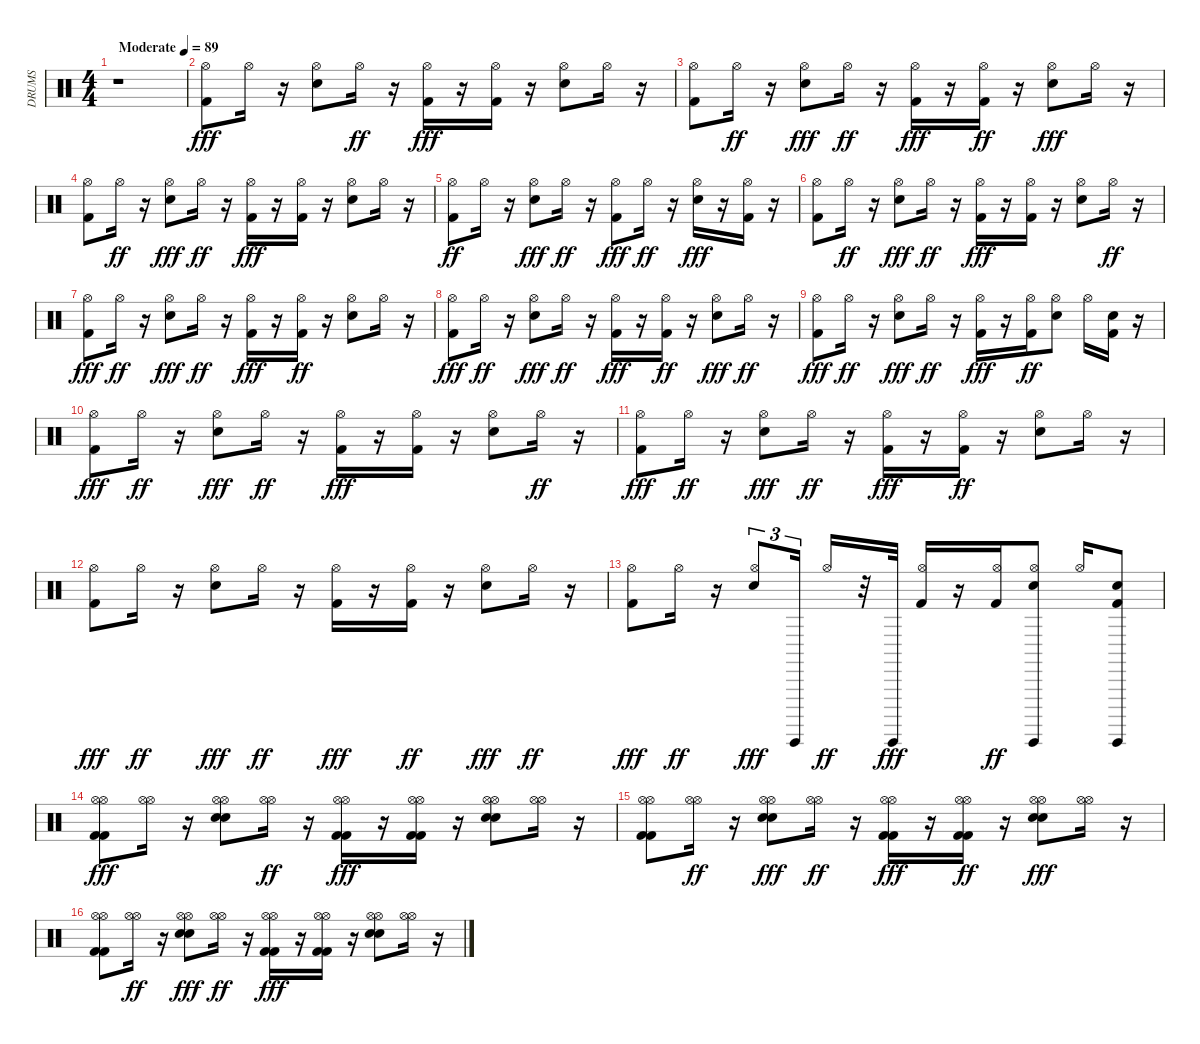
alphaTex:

\track ("DRUMS" "DRUMS") {instrument percussion}
\staff {score}
\articulation defaults
\ts (4 4)
\tempo (89 "Moderate")
\clef neutral
\ks c
r.1{dy fff} |
("Hi-Hat (open)" "Kick (hit) 2").8 "Hi-Hat (open)".16 r.16 ("Electric Snare (hit)" "Hi-Hat (open)").8 "Hi-Hat (open)".16{dy ff} r.16 ("Hi-Hat (open)" "Kick (hit) 2").16{dy fff} r.16 ("Kick (hit) 2" "Hi-Hat (open)").16 r.16 ("Hi-Hat (open)" "Electric Snare (hit)").8 "Hi-Hat (open)".16 r.16 |
("Hi-Hat (open)" "Kick (hit) 2").8 "Hi-Hat (open)".16{dy ff} r.16 ("Hi-Hat (open)" "Electric Snare (hit)").8{dy fff} "Hi-Hat (open)".16{dy ff} r.16 ("Hi-Hat (open)" "Kick (hit) 2").16{dy fff} r.16 ("Kick (hit) 2" "Hi-Hat (open)").16{dy ff} r.16 ("Electric Snare (hit)" "Hi-Hat (open)").8{dy fff} "Hi-Hat (open)".16 r.16 |
("Hi-Hat (open)" "Kick (hit) 2").8 "Hi-Hat (open)".16{dy ff} r.16 ("Hi-Hat (open)" "Electric Snare (hit)").8{dy fff} "Hi-Hat (open)".16{dy ff} r.16 ("Hi-Hat (open)" "Kick (hit) 2").16{dy fff} r.16 ("Kick (hit) 2" "Hi-Hat (open)").16 r.16 ("Hi-Hat (open)" "Electric Snare (hit)").8 "Hi-Hat (open)".16 r.16 |
("Hi-Hat (open)" "Kick (hit) 2").8{dy ff} "Hi-Hat (open)".16 r.16 ("Electric Snare (hit)" "Hi-Hat (open)").8{dy fff} "Hi-Hat (open)".16{dy ff} r.16 ("Hi-Hat (open)" "Kick (hit) 2").8{dy fff} "Hi-Hat (open)".16{dy ff} r.16 ("Electric Snare (hit)" "Hi-Hat (open)").16{dy fff} r.16 ("Hi-Hat (open)" "Kick (hit) 2").16 r.16 |
("Hi-Hat (open)" "Kick (hit) 2").8 "Hi-Hat (open)".16{dy ff} r.16 ("Hi-Hat (open)" "Electric Snare (hit)").8{dy fff} "Hi-Hat (open)".16{dy ff} r.16 ("Hi-Hat (open)" "Kick (hit) 2").16{dy fff} r.16 ("Hi-Hat (open)" "Kick (hit) 2").16 r.16 ("Hi-Hat (open)" "Electric Snare (hit)").8 "Hi-Hat (open)".16{dy ff} r.16 |
("Hi-Hat (open)" "Kick (hit) 2").8{dy fff} "Hi-Hat (open)".16{dy ff} r.16 ("Electric Snare (hit)" "Hi-Hat (open)").8{dy fff} "Hi-Hat (open)".16{dy ff} r.16 ("Hi-Hat (open)" "Kick (hit) 2").16{dy fff} r.16 ("Hi-Hat (open)" "Kick (hit) 2").16{dy ff} r.16 ("Electric Snare (hit)" "Hi-Hat (open)").8 "Hi-Hat (open)".16 r.16 |
("Hi-Hat (open)" "Kick (hit) 2").8{dy fff} "Hi-Hat (open)".16{dy ff} r.16 ("Electric Snare (hit)" "Hi-Hat (open)").8{dy fff} "Hi-Hat (open)".16{dy ff} r.16 ("Hi-Hat (open)" "Kick (hit) 2").16{dy fff} r.16 ("Hi-Hat (open)" "Kick (hit) 2").16{dy ff} r.16 ("Electric Snare (hit)" "Hi-Hat (open)").8{dy fff} "Hi-Hat (open)".16{dy ff} r.16 |
("Hi-Hat (open)" "Kick (hit) 2").8{dy fff} "Hi-Hat (open)".16{dy ff} r.16 ("Electric Snare (hit)" "Hi-Hat (open)").8{dy fff} "Hi-Hat (open)".16{dy ff} r.16 ("Hi-Hat (open)" "Kick (hit) 2").16{dy fff} r.16 ("Kick (hit) 2" "Hi-Hat (open)").16{dy ff} ("Electric Snare (hit)" "Hi-Hat (open)").8 "Hi-Hat (open)".16 ("Kick (hit) 2" "Snare (hit) 2").16 r.16 |
("Hi-Hat (open)" "Kick (hit) 2").8{dy fff} "Hi-Hat (open)".16{dy ff} r.16 ("Hi-Hat (open)" "Electric Snare (hit)").8{dy fff} "Hi-Hat (open)".16{dy ff} r.16 ("Hi-Hat (open)" "Kick (hit) 2").16{dy fff} r.16 ("Hi-Hat (open)" "Kick (hit) 2").16 r.16 ("Hi-Hat (open)" "Electric Snare (hit)").8 "Hi-Hat (open)".16{dy ff} r.16 |
("Hi-Hat (open)" "Kick (hit) 2").8{dy fff} "Hi-Hat (open)".16{dy ff} r.16 ("Electric Snare (hit)" "Hi-Hat (open)").8{dy fff} "Hi-Hat (open)".16{dy ff} r.16 ("Hi-Hat (open)" "Kick (hit) 2").16{dy fff} r.16 ("Hi-Hat (open)" "Kick (hit) 2").16{dy ff} r.16 ("Electric Snare (hit)" "Hi-Hat (open)").8 "Hi-Hat (open)".16 r.16 |
("Hi-Hat (open)" "Kick (hit) 2").8{dy fff} "Hi-Hat (open)".16{dy ff} r.16 ("Electric Snare (hit)" "Hi-Hat (open)").8{dy fff} "Hi-Hat (open)".16{dy ff} r.16 ("Hi-Hat (open)" "Kick (hit) 2").16{dy fff} r.16 ("Hi-Hat (open)" "Kick (hit) 2").16{dy ff} r.16 ("Electric Snare (hit)" "Hi-Hat (open)").8{dy fff} "Hi-Hat (open)".16{dy ff} r.16 |
("Hi-Hat (open)" "Kick (hit) 2").8{dy fff} "Hi-Hat (open)".16{dy ff} r.16 ("Electric Snare (hit)" "Hi-Hat (open)").8{tu (3 2) dy fff} "Guiro (hit)".16{tu (3 2)} "Hi-Hat (open)".16{dy ff} r.32 "Guiro (hit)".32{dy fff} ("Hi-Hat (open)" "Kick (hit) 2").16 r.16 ("Kick (hit) 2" "Hi-Hat (open)").16{dy ff} ("Guiro (hit)" "Electric Snare (hit)" "Hi-Hat (open)").8 "Hi-Hat (open)".16 ("Guiro (hit)" "Kick (hit) 2" "Snare (hit) 2").8 |
("Hi-Hat (open)" "Kick (hit) 2" "Hi-Hat (open)" "Kick (hit) 2").8{dy fff} ("Hi-Hat (open)" "Hi-Hat (open)").16 r.16 ("Electric Snare (hit)" "Hi-Hat (open)" "Electric Snare (hit)" "Hi-Hat (open)").8 ("Hi-Hat (open)" "Hi-Hat (open)").16{dy ff} r.16 ("Hi-Hat (open)" "Kick (hit) 2" "Hi-Hat (open)" "Kick (hit) 2").16{dy fff} r.16 ("Kick (hit) 2" "Hi-Hat (open)" "Kick (hit) 2" "Hi-Hat (open)").16 r.16 ("Hi-Hat (open)" "Electric Snare (hit)" "Hi-Hat (open)" "Electric Snare (hit)").8 ("Hi-Hat (open)" "Hi-Hat (open)").16 r.16 |
("Hi-Hat (open)" "Kick (hit) 2" "Hi-Hat (open)" "Kick (hit) 2").8 ("Hi-Hat (open)" "Hi-Hat (open)").16{dy ff} r.16 ("Hi-Hat (open)" "Electric Snare (hit)" "Hi-Hat (open)" "Electric Snare (hit)").8{dy fff} ("Hi-Hat (open)" "Hi-Hat (open)").16{dy ff} r.16 ("Hi-Hat (open)" "Kick (hit) 2" "Hi-Hat (open)" "Kick (hit) 2").16{dy fff} r.16 ("Kick (hit) 2" "Hi-Hat (open)" "Kick (hit) 2" "Hi-Hat (open)").16{dy ff} r.16 ("Electric Snare (hit)" "Hi-Hat (open)" "Electric Snare (hit)" "Hi-Hat (open)").8{dy fff} ("Hi-Hat (open)" "Hi-Hat (open)").16 r.16 |
("Hi-Hat (open)" "Kick (hit) 2" "Hi-Hat (open)" "Kick (hit) 2").8 ("Hi-Hat (open)" "Hi-Hat (open)").16{dy ff} r.16 ("Hi-Hat (open)" "Electric Snare (hit)" "Hi-Hat (open)" "Electric Snare (hit)").8{dy fff} ("Hi-Hat (open)" "Hi-Hat (open)").16{dy ff} r.16 ("Hi-Hat (open)" "Kick (hit) 2" "Hi-Hat (open)" "Kick (hit) 2").16{dy fff} r.16 ("Kick (hit) 2" "Hi-Hat (open)" "Kick (hit) 2" "Hi-Hat (open)").16 r.16 ("Hi-Hat (open)" "Electric Snare (hit)" "Hi-Hat (open)" "Electric Snare (hit)").8 ("Hi-Hat (open)" "Hi-Hat (open)").16 r.16
